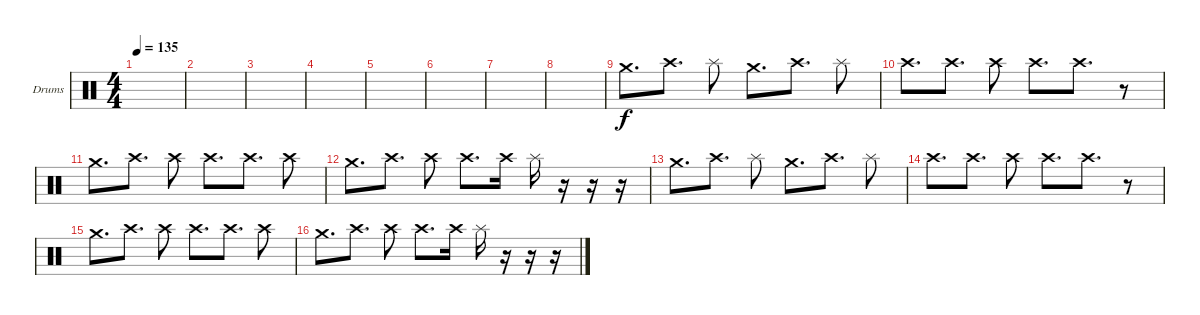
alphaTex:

\defaultSystemsLayout 4
\bracketExtendMode groupsimilarinstruments
\firstSystemTrackNameOrientation horizontal
\otherSystemsTrackNameOrientation horizontal
\track ("Matt Helders" "Drums") {instrument percussion}
\staff {score}
\articulation defaults
\ts (4 4)
\tempo 135
\clef neutral
\scale
0.472222
\ks c
|
\scale
0.263889 |
\scale
0.263889 |
\scale
0.333333 |
\scale
0.333333 |
\scale
0.333333 |
\scale
0.333333 |
\scale
0.333333 |
\scale
0.333333 "Crash medium (hit)".8{d} "Crash high (hit)".8{d} "Splash (hit)".8 "Crash medium (hit)".8{d} "Crash high (hit)".8{d} "Splash (hit)".8 |
\scale
0.333333 "Crash high (hit)".8{d} "Crash high (hit)".8{d} "Crash high (hit)".8 "Crash high (hit)".8{d} "Crash high (hit)".8{d} r.8 |
\scale
0.333333 "Crash medium (hit)".8{d} "Crash high (hit)".8{d} "Crash high (hit)".8 "Crash high (hit)".8{d} "Crash high (hit)".8{d} "Crash high (hit)".8 |
\scale
0.333333 "Crash medium (hit)".8{d} "Crash high (hit)".8{d} "Crash high (hit)".8 "Crash high (hit)".8{d} "Crash high (hit)".16 "Splash (hit)".16 r.16 r.16 r.16 |
\scale
0.333333 "Crash medium (hit)".8{d} "Crash high (hit)".8{d} "Splash (hit)".8 "Crash medium (hit)".8{d} "Crash high (hit)".8{d} "Splash (hit)".8 |
\scale
0.333333 "Crash high (hit)".8{d} "Crash high (hit)".8{d} "Crash high (hit)".8 "Crash high (hit)".8{d} "Crash high (hit)".8{d} r.8 |
\scale
0.333333 "Crash medium (hit)".8{d} "Crash high (hit)".8{d} "Crash high (hit)".8 "Crash high (hit)".8{d} "Crash high (hit)".8{d} "Crash high (hit)".8 |
\scale
0.333333 "Crash medium (hit)".8{d} "Crash high (hit)".8{d} "Crash high (hit)".8 "Crash high (hit)".8{d} "Crash high (hit)".16 "Splash (hit)".16 r.16 r.16 r.16
